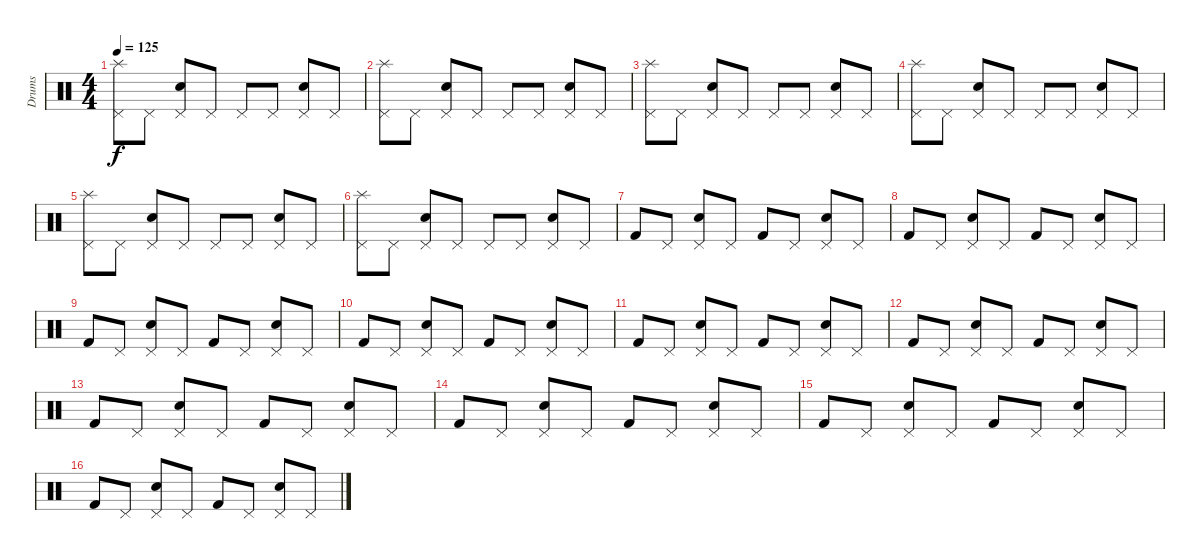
\track ("Drums" "Drums") {instrument percussion}
\staff {score}
\articulation defaults
\ts (4 4)
\tempo 125
\clef neutral
\ks c
("Splash (hit)" "Pedal Hi-Hat (hit)").8{dy f} "Pedal Hi-Hat (hit)".8 ("Pedal Hi-Hat (hit)" "Electric Snare (hit)").8 "Pedal Hi-Hat (hit)".8 "Pedal Hi-Hat (hit)".8 "Pedal Hi-Hat (hit)".8 ("Pedal Hi-Hat (hit)" "Electric Snare (hit)").8 "Pedal Hi-Hat (hit)".8 |
("Splash (hit)" "Pedal Hi-Hat (hit)").8 "Pedal Hi-Hat (hit)".8 ("Pedal Hi-Hat (hit)" "Electric Snare (hit)").8 "Pedal Hi-Hat (hit)".8 "Pedal Hi-Hat (hit)".8 "Pedal Hi-Hat (hit)".8 ("Pedal Hi-Hat (hit)" "Electric Snare (hit)").8 "Pedal Hi-Hat (hit)".8 |
("Splash (hit)" "Pedal Hi-Hat (hit)").8 "Pedal Hi-Hat (hit)".8 ("Pedal Hi-Hat (hit)" "Electric Snare (hit)").8 "Pedal Hi-Hat (hit)".8 "Pedal Hi-Hat (hit)".8 "Pedal Hi-Hat (hit)".8 ("Pedal Hi-Hat (hit)" "Electric Snare (hit)").8 "Pedal Hi-Hat (hit)".8 |
("Splash (hit)" "Pedal Hi-Hat (hit)").8 "Pedal Hi-Hat (hit)".8 ("Pedal Hi-Hat (hit)" "Electric Snare (hit)").8 "Pedal Hi-Hat (hit)".8 "Pedal Hi-Hat (hit)".8 "Pedal Hi-Hat (hit)".8 ("Pedal Hi-Hat (hit)" "Electric Snare (hit)").8 "Pedal Hi-Hat (hit)".8 |
("Splash (hit)" "Pedal Hi-Hat (hit)").8 "Pedal Hi-Hat (hit)".8 ("Pedal Hi-Hat (hit)" "Electric Snare (hit)").8 "Pedal Hi-Hat (hit)".8 "Pedal Hi-Hat (hit)".8 "Pedal Hi-Hat (hit)".8 ("Pedal Hi-Hat (hit)" "Electric Snare (hit)").8 "Pedal Hi-Hat (hit)".8 |
("Splash (hit)" "Pedal Hi-Hat (hit)").8 "Pedal Hi-Hat (hit)".8 ("Pedal Hi-Hat (hit)" "Electric Snare (hit)").8 "Pedal Hi-Hat (hit)".8 "Pedal Hi-Hat (hit)".8 "Pedal Hi-Hat (hit)".8 ("Pedal Hi-Hat (hit)" "Electric Snare (hit)").8 "Pedal Hi-Hat (hit)".8 |
"Kick (hit) 2".8 "Pedal Hi-Hat (hit)".8 ("Pedal Hi-Hat (hit)" "Electric Snare (hit)").8 "Pedal Hi-Hat (hit)".8 "Kick (hit) 2".8 "Pedal Hi-Hat (hit)".8 ("Pedal Hi-Hat (hit)" "Electric Snare (hit)").8 "Pedal Hi-Hat (hit)".8 |
"Kick (hit) 2".8 "Pedal Hi-Hat (hit)".8 ("Pedal Hi-Hat (hit)" "Electric Snare (hit)").8 "Pedal Hi-Hat (hit)".8 "Kick (hit) 2".8 "Pedal Hi-Hat (hit)".8 ("Pedal Hi-Hat (hit)" "Electric Snare (hit)").8 "Pedal Hi-Hat (hit)".8 |
"Kick (hit) 2".8 "Pedal Hi-Hat (hit)".8 ("Pedal Hi-Hat (hit)" "Electric Snare (hit)").8 "Pedal Hi-Hat (hit)".8 "Kick (hit) 2".8 "Pedal Hi-Hat (hit)".8 ("Pedal Hi-Hat (hit)" "Electric Snare (hit)").8 "Pedal Hi-Hat (hit)".8 |
"Kick (hit) 2".8 "Pedal Hi-Hat (hit)".8 ("Pedal Hi-Hat (hit)" "Electric Snare (hit)").8 "Pedal Hi-Hat (hit)".8 "Kick (hit) 2".8 "Pedal Hi-Hat (hit)".8 ("Pedal Hi-Hat (hit)" "Electric Snare (hit)").8 "Pedal Hi-Hat (hit)".8 |
"Kick (hit) 2".8 "Pedal Hi-Hat (hit)".8 ("Pedal Hi-Hat (hit)" "Electric Snare (hit)").8 "Pedal Hi-Hat (hit)".8 "Kick (hit) 2".8 "Pedal Hi-Hat (hit)".8 ("Pedal Hi-Hat (hit)" "Electric Snare (hit)").8 "Pedal Hi-Hat (hit)".8 |
"Kick (hit) 2".8 "Pedal Hi-Hat (hit)".8 ("Pedal Hi-Hat (hit)" "Electric Snare (hit)").8 "Pedal Hi-Hat (hit)".8 "Kick (hit) 2".8 "Pedal Hi-Hat (hit)".8 ("Pedal Hi-Hat (hit)" "Electric Snare (hit)").8 "Pedal Hi-Hat (hit)".8 |
"Kick (hit) 2".8 "Pedal Hi-Hat (hit)".8 ("Pedal Hi-Hat (hit)" "Electric Snare (hit)").8 "Pedal Hi-Hat (hit)".8 "Kick (hit) 2".8 "Pedal Hi-Hat (hit)".8 ("Pedal Hi-Hat (hit)" "Electric Snare (hit)").8 "Pedal Hi-Hat (hit)".8 |
"Kick (hit) 2".8 "Pedal Hi-Hat (hit)".8 ("Pedal Hi-Hat (hit)" "Electric Snare (hit)").8 "Pedal Hi-Hat (hit)".8 "Kick (hit) 2".8 "Pedal Hi-Hat (hit)".8 ("Pedal Hi-Hat (hit)" "Electric Snare (hit)").8 "Pedal Hi-Hat (hit)".8 |
"Kick (hit) 2".8 "Pedal Hi-Hat (hit)".8 ("Pedal Hi-Hat (hit)" "Electric Snare (hit)").8 "Pedal Hi-Hat (hit)".8 "Kick (hit) 2".8 "Pedal Hi-Hat (hit)".8 ("Pedal Hi-Hat (hit)" "Electric Snare (hit)").8 "Pedal Hi-Hat (hit)".8 |
"Kick (hit) 2".8 "Pedal Hi-Hat (hit)".8 ("Pedal Hi-Hat (hit)" "Electric Snare (hit)").8 "Pedal Hi-Hat (hit)".8 "Kick (hit) 2".8 "Pedal Hi-Hat (hit)".8 ("Pedal Hi-Hat (hit)" "Electric Snare (hit)").8 "Pedal Hi-Hat (hit)".8
